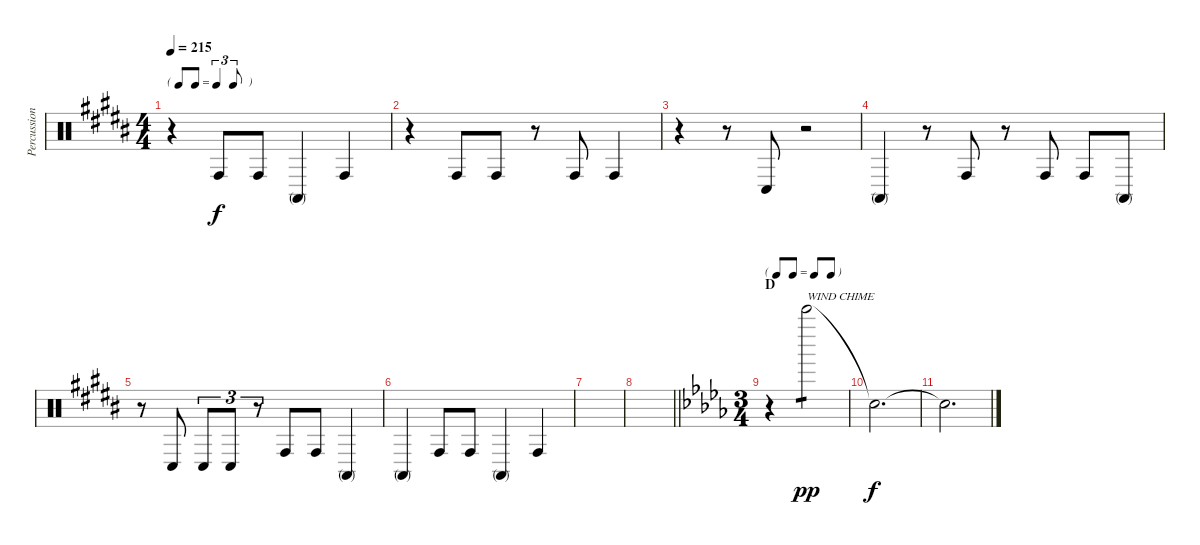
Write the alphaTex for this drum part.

\track ("Percussion A (Tainaka Ritsu)" "Percussion") {instrument percussion}
\staff {score}
\articulation defaults
\ts (4 4)
\tf triplet8th
\tempo 215
\clef neutral
\ks b
r.4{dy f} "Conga high (hit)".8 "Conga high (hit)".8 "Conga high (mute)".4 "Conga high (hit)".4 |
r.4 "Conga high (hit)".8 "Conga high (hit)".8 r.8 "Conga high (hit)".8 "Conga high (hit)".4 |
r.4 r.8 "Conga low (hit)".8 r.2 |
"Conga high (mute)".4 r.8 "Conga high (hit)".8 r.8 "Conga high (hit)".8 "Conga high (hit)".8 "Conga high (mute)".8 |
r.8 "Conga low (hit)".8 "Conga low (hit)".8{tu (3 2)} "Conga low (hit)".8{tu (3 2)} r.8{tu (3 2)} "Conga high (hit)".8 "Conga high (hit)".8 "Conga high (mute)".4 |
"Conga high (mute)".4 "Conga high (hit)".8 "Conga high (hit)".8 "Conga high (mute)".4 "Conga high (hit)".4 |
|
\barLineRight lightlight
|
\ts (3 4)
\tf none
\section ("" "D")
\ks db
r.4 "Bell Tree (hit)".2{txt "WIND CHIME" tp 1 dy pp} |
"Snare (hit)"{t}.2{d dy f} |
"Snare (hit)"{t}.2{d}
